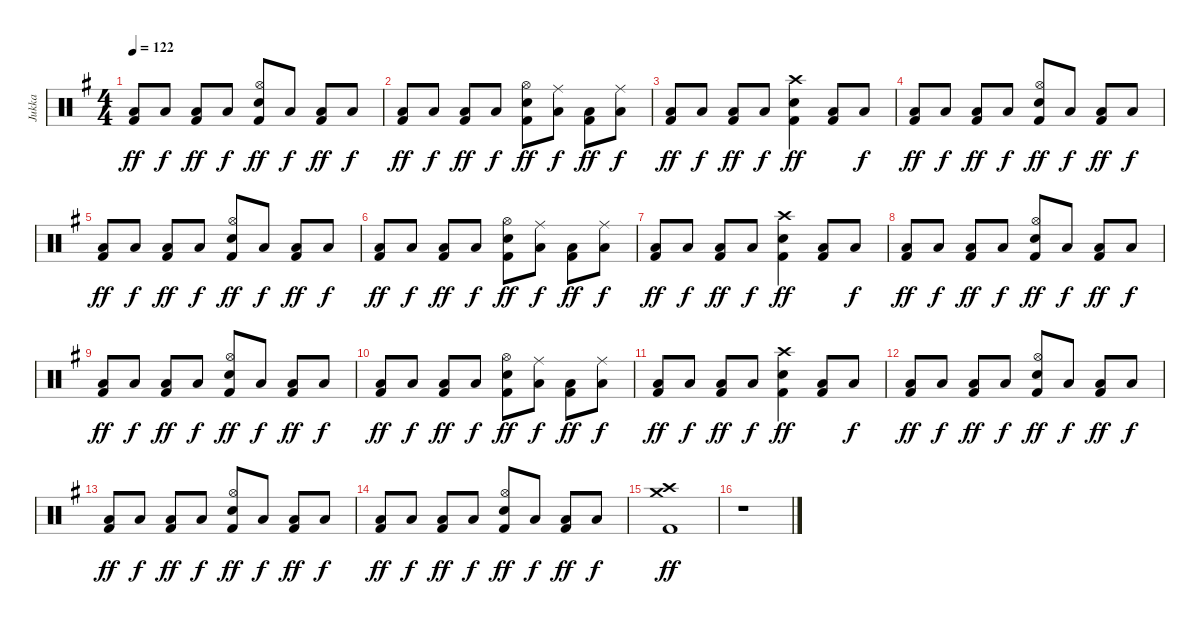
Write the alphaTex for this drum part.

\track ("Jukka" "Jukka") {instrument percussion}
\staff {score}
\articulation defaults
\ts (4 4)
\tempo 122
\clef neutral
\ks g
("Low Floor Tom (hit)" "Kick (hit) 2").8{dy ff} "Low Floor Tom (hit)".8{dy f} ("Low Floor Tom (hit)" "Kick (hit) 2").8{dy ff} "Low Floor Tom (hit)".8{dy f} ("Hi-Hat (open)" "Electric Snare (hit)" "Kick (hit) 2").8{dy ff} "Low Floor Tom (hit)".8{dy f} ("Low Floor Tom (hit)" "Kick (hit) 2").8{dy ff} "Low Floor Tom (hit)".8{dy f} |
("Low Floor Tom (hit)" "Kick (hit) 2").8{dy ff} "Low Floor Tom (hit)".8{dy f} ("Low Floor Tom (hit)" "Kick (hit) 2").8{dy ff} "Low Floor Tom (hit)".8{dy f} ("Hi-Hat (open)" "Electric Snare (hit)" "Kick (hit) 2").8{dy ff} ("Ride (middle)" "Low Floor Tom (hit)").8{dy f} ("Low Floor Tom (hit)" "Kick (hit) 2").8{dy ff} ("Ride (middle)" "Low Floor Tom (hit)").8{dy f} |
("Low Floor Tom (hit)" "Kick (hit) 2").8{dy ff} "Low Floor Tom (hit)".8{dy f} ("Low Floor Tom (hit)" "Kick (hit) 2").8{dy ff} "Low Floor Tom (hit)".8{dy f} ("Crash high (hit)" "Electric Snare (hit)" "Kick (hit) 2").4{dy ff} ("Low Floor Tom (hit)" "Kick (hit) 2").8 "Low Floor Tom (hit)".8{dy f} |
("Low Floor Tom (hit)" "Kick (hit) 2").8{dy ff} "Low Floor Tom (hit)".8{dy f} ("Low Floor Tom (hit)" "Kick (hit) 2").8{dy ff} "Low Floor Tom (hit)".8{dy f} ("Hi-Hat (open)" "Electric Snare (hit)" "Kick (hit) 2").8{dy ff} "Low Floor Tom (hit)".8{dy f} ("Low Floor Tom (hit)" "Kick (hit) 2").8{dy ff} "Low Floor Tom (hit)".8{dy f} |
("Low Floor Tom (hit)" "Kick (hit) 2").8{dy ff} "Low Floor Tom (hit)".8{dy f} ("Low Floor Tom (hit)" "Kick (hit) 2").8{dy ff} "Low Floor Tom (hit)".8{dy f} ("Hi-Hat (open)" "Electric Snare (hit)" "Kick (hit) 2").8{dy ff} "Low Floor Tom (hit)".8{dy f} ("Low Floor Tom (hit)" "Kick (hit) 2").8{dy ff} "Low Floor Tom (hit)".8{dy f} |
("Low Floor Tom (hit)" "Kick (hit) 2").8{dy ff} "Low Floor Tom (hit)".8{dy f} ("Low Floor Tom (hit)" "Kick (hit) 2").8{dy ff} "Low Floor Tom (hit)".8{dy f} ("Hi-Hat (open)" "Electric Snare (hit)" "Kick (hit) 2").8{dy ff} ("Ride (middle)" "Low Floor Tom (hit)").8{dy f} ("Low Floor Tom (hit)" "Kick (hit) 2").8{dy ff} ("Ride (middle)" "Low Floor Tom (hit)").8{dy f} |
("Low Floor Tom (hit)" "Kick (hit) 2").8{dy ff} "Low Floor Tom (hit)".8{dy f} ("Low Floor Tom (hit)" "Kick (hit) 2").8{dy ff} "Low Floor Tom (hit)".8{dy f} ("Crash high (hit)" "Electric Snare (hit)" "Kick (hit) 2").4{dy ff} ("Low Floor Tom (hit)" "Kick (hit) 2").8 "Low Floor Tom (hit)".8{dy f} |
("Low Floor Tom (hit)" "Kick (hit) 2").8{dy ff} "Low Floor Tom (hit)".8{dy f} ("Low Floor Tom (hit)" "Kick (hit) 2").8{dy ff} "Low Floor Tom (hit)".8{dy f} ("Hi-Hat (open)" "Electric Snare (hit)" "Kick (hit) 2").8{dy ff} "Low Floor Tom (hit)".8{dy f} ("Low Floor Tom (hit)" "Kick (hit) 2").8{dy ff} "Low Floor Tom (hit)".8{dy f} |
("Low Floor Tom (hit)" "Kick (hit) 2").8{dy ff} "Low Floor Tom (hit)".8{dy f} ("Low Floor Tom (hit)" "Kick (hit) 2").8{dy ff} "Low Floor Tom (hit)".8{dy f} ("Hi-Hat (open)" "Electric Snare (hit)" "Kick (hit) 2").8{dy ff} "Low Floor Tom (hit)".8{dy f} ("Low Floor Tom (hit)" "Kick (hit) 2").8{dy ff} "Low Floor Tom (hit)".8{dy f} |
("Low Floor Tom (hit)" "Kick (hit) 2").8{dy ff} "Low Floor Tom (hit)".8{dy f} ("Low Floor Tom (hit)" "Kick (hit) 2").8{dy ff} "Low Floor Tom (hit)".8{dy f} ("Hi-Hat (open)" "Electric Snare (hit)" "Kick (hit) 2").8{dy ff} ("Ride (middle)" "Low Floor Tom (hit)").8{dy f} ("Low Floor Tom (hit)" "Kick (hit) 2").8{dy ff} ("Ride (middle)" "Low Floor Tom (hit)").8{dy f} |
("Low Floor Tom (hit)" "Kick (hit) 2").8{dy ff} "Low Floor Tom (hit)".8{dy f} ("Low Floor Tom (hit)" "Kick (hit) 2").8{dy ff} "Low Floor Tom (hit)".8{dy f} ("Crash high (hit)" "Electric Snare (hit)" "Kick (hit) 2").4{dy ff} ("Low Floor Tom (hit)" "Kick (hit) 2").8 "Low Floor Tom (hit)".8{dy f} |
("Low Floor Tom (hit)" "Kick (hit) 2").8{dy ff} "Low Floor Tom (hit)".8{dy f} ("Low Floor Tom (hit)" "Kick (hit) 2").8{dy ff} "Low Floor Tom (hit)".8{dy f} ("Hi-Hat (open)" "Electric Snare (hit)" "Kick (hit) 2").8{dy ff} "Low Floor Tom (hit)".8{dy f} ("Low Floor Tom (hit)" "Kick (hit) 2").8{dy ff} "Low Floor Tom (hit)".8{dy f} |
("Low Floor Tom (hit)" "Kick (hit) 2").8{dy ff} "Low Floor Tom (hit)".8{dy f} ("Low Floor Tom (hit)" "Kick (hit) 2").8{dy ff} "Low Floor Tom (hit)".8{dy f} ("Hi-Hat (open)" "Electric Snare (hit)" "Kick (hit) 2").8{dy ff} "Low Floor Tom (hit)".8{dy f} ("Low Floor Tom (hit)" "Kick (hit) 2").8{dy ff} "Low Floor Tom (hit)".8{dy f} |
("Low Floor Tom (hit)" "Kick (hit) 2").8{dy ff} "Low Floor Tom (hit)".8{dy f} ("Low Floor Tom (hit)" "Kick (hit) 2").8{dy ff} "Low Floor Tom (hit)".8{dy f} ("Hi-Hat (open)" "Electric Snare (hit)" "Kick (hit) 2").8{dy ff} "Low Floor Tom (hit)".8{dy f} ("Low Floor Tom (hit)" "Kick (hit) 2").8{dy ff} "Low Floor Tom (hit)".8{dy f} |
("Crash high (hit)" "Crash medium (hit)" "Kick (hit) 2").1{dy ff} |
r.1
